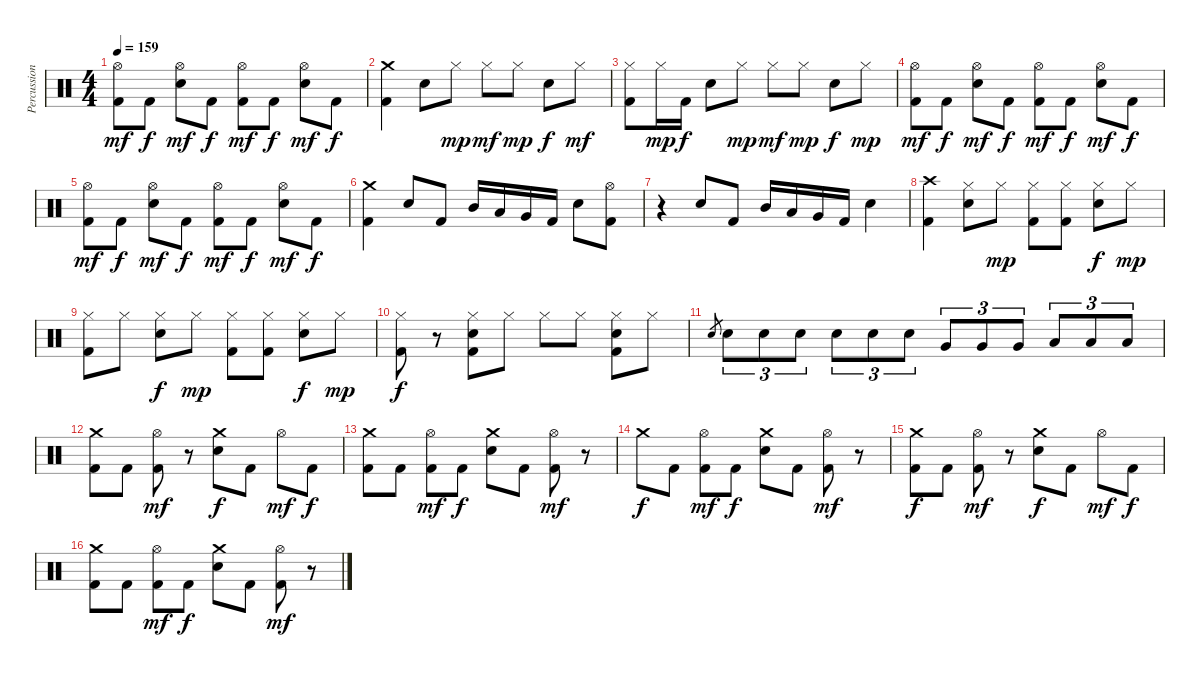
\track ("Percussion" "Percussion") {instrument percussion}
\staff {score}
\articulation defaults
\ts (4 4)
\tempo 159
\clef neutral
\ks c
("Hi-Hat (open)" "Kick (hit) 2").8{dy mf} "Kick (hit) 2".8{dy f} ("Hi-Hat (open)" "Electric Snare (hit)").8{dy mf} "Kick (hit) 2".8{dy f} ("Hi-Hat (open)" "Kick (hit) 2").8{dy mf} "Kick (hit) 2".8{dy f} ("Hi-Hat (open)" "Electric Snare (hit)").8{dy mf} "Kick (hit) 2".8{dy f} |
("Crash medium (hit)" "Kick (hit) 2").4 "Electric Snare (hit)".8 "Hi-Hat (closed)".8{dy mp} "Hi-Hat (closed)".8{dy mf} "Hi-Hat (closed)".8{dy mp} "Electric Snare (hit)".8{dy f} "Hi-Hat (closed)".8{dy mf} |
("Hi-Hat (closed)" "Kick (hit) 2").8 "Hi-Hat (closed)".16{dy mp} "Kick (hit) 2".16{dy f} "Electric Snare (hit)".8 "Hi-Hat (closed)".8{dy mp} "Hi-Hat (closed)".8{dy mf} "Hi-Hat (closed)".8{dy mp} "Electric Snare (hit)".8{dy f} "Hi-Hat (closed)".8{dy mp} |
("Hi-Hat (open)" "Kick (hit) 2").8{dy mf} "Kick (hit) 2".8{dy f} ("Hi-Hat (open)" "Electric Snare (hit)").8{dy mf} "Kick (hit) 2".8{dy f} ("Hi-Hat (open)" "Kick (hit) 2").8{dy mf} "Kick (hit) 2".8{dy f} ("Hi-Hat (open)" "Electric Snare (hit)").8{dy mf} "Kick (hit) 2".8{dy f} |
("Hi-Hat (open)" "Kick (hit) 2").8{dy mf} "Kick (hit) 2".8{dy f} ("Hi-Hat (open)" "Electric Snare (hit)").8{dy mf} "Kick (hit) 2".8{dy f} ("Hi-Hat (open)" "Kick (hit) 2").8{dy mf} "Kick (hit) 2".8{dy f} ("Hi-Hat (open)" "Electric Snare (hit)").8{dy mf} "Kick (hit) 2".8{dy f} |
("Crash medium (hit)" "Kick (hit) 2").4 "Electric Snare (hit)".8 "Kick (hit) 2".8 "Mid Tom (hit)".16 "Low Tom (hit)".16 "Very Low Tom (hit)".16 "Kick (hit) 2".16 "Electric Snare (hit)".8 ("Hi-Hat (open)" "Kick (hit) 2").8 |
r.4 "Electric Snare (hit)".8 "Kick (hit) 2".8 "Mid Tom (hit)".16 "Low Tom (hit)".16 "Very Low Tom (hit)".16 "Kick (hit) 2".16 "Electric Snare (hit)".4 |
("Crash high (hit)" "Kick (hit) 2").4 ("Hi-Hat (closed)" "Electric Snare (hit)").8 "Hi-Hat (closed)".8{dy mp} ("Hi-Hat (closed)" "Kick (hit) 2").8 ("Hi-Hat (closed)" "Kick (hit) 2").8 ("Hi-Hat (closed)" "Electric Snare (hit)").8{dy f} "Hi-Hat (closed)".8{dy mp} |
("Hi-Hat (closed)" "Kick (hit) 2").8 "Hi-Hat (closed)".8 ("Hi-Hat (closed)" "Electric Snare (hit)").8{dy f} "Hi-Hat (closed)".8{dy mp} ("Hi-Hat (closed)" "Kick (hit) 2").8 ("Hi-Hat (closed)" "Kick (hit) 2").8 ("Hi-Hat (closed)" "Electric Snare (hit)").8{dy f} "Hi-Hat (closed)".8{dy mp} |
("Hi-Hat (closed)" "Kick (hit) 2").8{dy f} r.8 ("Hi-Hat (closed)" "Kick (hit) 2" "Electric Snare (hit)").8 "Hi-Hat (closed)".8 "Hi-Hat (closed)".8 "Hi-Hat (closed)".8 ("Hi-Hat (closed)" "Kick (hit) 2" "Electric Snare (hit)").8 "Hi-Hat (closed)".8 |
"Electric Snare (hit)".8{gr} "Electric Snare (hit)".8{tu (3 2)} "Electric Snare (hit)".8{tu (3 2)} "Electric Snare (hit)".8{tu (3 2)} "Electric Snare (hit)".8{tu (3 2)} "Electric Snare (hit)".8{tu (3 2)} "Electric Snare (hit)".8{tu (3 2)} "Very Low Tom (hit)".8{tu (3 2)} "Very Low Tom (hit)".8{tu (3 2)} "Very Low Tom (hit)".8{tu (3 2)} "Low Floor Tom (hit)".8{tu (3 2)} "Low Floor Tom (hit)".8{tu (3 2)} "Low Floor Tom (hit)".8{tu (3 2)} |
("Crash medium (hit)" "Kick (hit) 2").8 "Kick (hit) 2".8 ("Hi-Hat (open)" "Kick (hit) 2").8{dy mf} r.8 ("Crash medium (hit)" "Electric Snare (hit)").8{dy f} "Kick (hit) 2".8 "Hi-Hat (open)".8{dy mf} "Kick (hit) 2".8{dy f} |
("Crash medium (hit)" "Kick (hit) 2").8 "Kick (hit) 2".8 ("Hi-Hat (open)" "Kick (hit) 2").8{dy mf} "Kick (hit) 2".8{dy f} ("Crash medium (hit)" "Electric Snare (hit)").8 "Kick (hit) 2".8 ("Hi-Hat (open)" "Kick (hit) 2").8{dy mf} r.8 |
"Crash medium (hit)".8{dy f} "Kick (hit) 2".8 ("Hi-Hat (open)" "Kick (hit) 2").8{dy mf} "Kick (hit) 2".8{dy f} ("Crash medium (hit)" "Electric Snare (hit)").8 "Kick (hit) 2".8 ("Hi-Hat (open)" "Kick (hit) 2").8{dy mf} r.8 |
("Crash medium (hit)" "Kick (hit) 2").8{dy f} "Kick (hit) 2".8 ("Hi-Hat (open)" "Kick (hit) 2").8{dy mf} r.8 ("Crash medium (hit)" "Electric Snare (hit)").8{dy f} "Kick (hit) 2".8 "Hi-Hat (open)".8{dy mf} "Kick (hit) 2".8{dy f} |
("Crash medium (hit)" "Kick (hit) 2").8 "Kick (hit) 2".8 ("Hi-Hat (open)" "Kick (hit) 2").8{dy mf} "Kick (hit) 2".8{dy f} ("Crash medium (hit)" "Electric Snare (hit)").8 "Kick (hit) 2".8 ("Hi-Hat (open)" "Kick (hit) 2").8{dy mf} r.8
